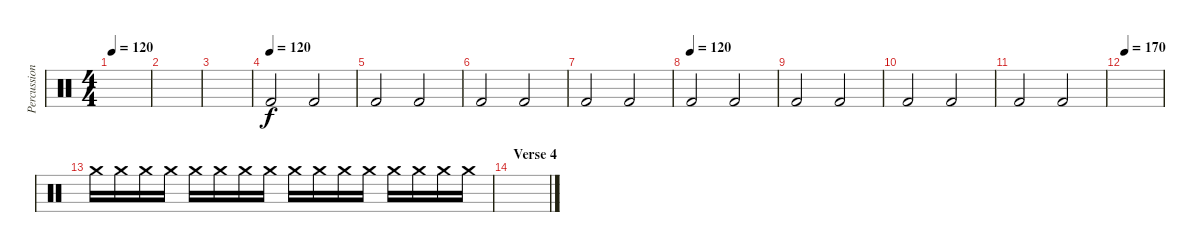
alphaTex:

\track ("Percussion" "Percussion") {instrument percussion}
\staff {score}
\articulation defaults
\ts (4 4)
\tempo 120
\clef neutral
\ks c
|
|
|
\tempo (120)
"Kick (hit) 2".2 "Kick (hit) 2".2 |
"Kick (hit) 2".2 "Kick (hit) 2".2 |
"Kick (hit) 2".2 "Kick (hit) 2".2 |
"Kick (hit) 2".2 "Kick (hit) 2".2 |
\tempo (120)
"Kick (hit) 2".2 "Kick (hit) 2".2 |
"Kick (hit) 2".2 "Kick (hit) 2".2 |
"Kick (hit) 2".2 "Kick (hit) 2".2 |
"Kick (hit) 2".2 "Kick (hit) 2".2 |
\tempo 170
|
"Crash medium (hit)".16{volume 0} "Crash medium (hit)".16{volume 14} "Crash medium (hit)".16 "Crash medium (hit)".16 "Crash medium (hit)".16 "Crash medium (hit)".16 "Crash medium (hit)".16 "Crash medium (hit)".16 "Crash medium (hit)".16 "Crash medium (hit)".16 "Crash medium (hit)".16 "Crash medium (hit)".16 "Crash medium (hit)".16 "Crash medium (hit)".16 "Crash medium (hit)".16 "Crash medium (hit)".16 |
\section ("" "Verse 4")
